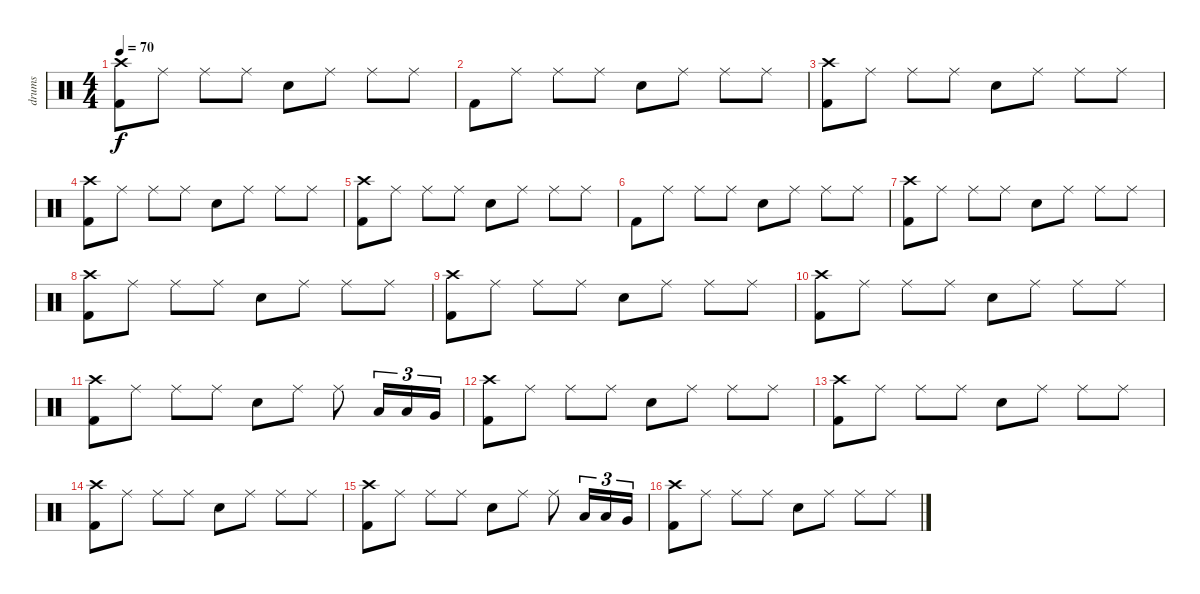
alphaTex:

\track ("drums" "drums") {instrument percussion}
\staff {score}
\articulation defaults
\ts (4 4)
\tempo 70
\clef neutral
\ks c
("Crash high (hit)" "Kick (hit) 2").8{dy f} "Ride (middle)".8 "Ride (middle)".8 "Ride (middle)".8 "Snare (hit) 2".8 "Ride (middle)".8 "Ride (middle)".8 "Ride (middle)".8 |
"Kick (hit) 2".8 "Ride (middle)".8 "Ride (middle)".8 "Ride (middle)".8 "Snare (hit) 2".8 "Ride (middle)".8 "Ride (middle)".8 "Ride (middle)".8 |
("Crash high (hit)" "Kick (hit) 2").8 "Ride (middle)".8 "Ride (middle)".8 "Ride (middle)".8 "Snare (hit) 2".8 "Ride (middle)".8 "Ride (middle)".8 "Ride (middle)".8 |
("Crash high (hit)" "Kick (hit) 2").8 "Ride (middle)".8 "Ride (middle)".8 "Ride (middle)".8 "Snare (hit) 2".8 "Ride (middle)".8 "Ride (middle)".8 "Ride (middle)".8 |
("Crash high (hit)" "Kick (hit) 2").8 "Ride (middle)".8 "Ride (middle)".8 "Ride (middle)".8 "Snare (hit) 2".8 "Ride (middle)".8 "Ride (middle)".8 "Ride (middle)".8 |
"Kick (hit) 2".8 "Ride (middle)".8 "Ride (middle)".8 "Ride (middle)".8 "Snare (hit) 2".8 "Ride (middle)".8 "Ride (middle)".8 "Ride (middle)".8 |
("Crash high (hit)" "Kick (hit) 2").8 "Ride (middle)".8 "Ride (middle)".8 "Ride (middle)".8 "Snare (hit) 2".8 "Ride (middle)".8 "Ride (middle)".8 "Ride (middle)".8 |
("Crash high (hit)" "Kick (hit) 2").8 "Ride (middle)".8 "Ride (middle)".8 "Ride (middle)".8 "Snare (hit) 2".8 "Ride (middle)".8 "Ride (middle)".8 "Ride (middle)".8 |
("Crash high (hit)" "Kick (hit) 2").8 "Ride (middle)".8 "Ride (middle)".8 "Ride (middle)".8 "Snare (hit) 2".8 "Ride (middle)".8 "Ride (middle)".8 "Ride (middle)".8 |
("Crash high (hit)" "Kick (hit) 2").8 "Ride (middle)".8 "Ride (middle)".8 "Ride (middle)".8 "Snare (hit) 2".8 "Ride (middle)".8 "Ride (middle)".8 "Ride (middle)".8 |
("Crash high (hit)" "Kick (hit) 2").8 "Ride (middle)".8 "Ride (middle)".8 "Ride (middle)".8 "Snare (hit) 2".8 "Ride (middle)".8 "Ride (middle)".8 "Low Tom (hit)".16{tu (3 2)} "Low Tom (hit)".16{tu (3 2)} "Very Low Tom (hit)".16{tu (3 2)} |
("Crash high (hit)" "Kick (hit) 2").8 "Ride (middle)".8 "Ride (middle)".8 "Ride (middle)".8 "Snare (hit) 2".8 "Ride (middle)".8 "Ride (middle)".8 "Ride (middle)".8 |
("Crash high (hit)" "Kick (hit) 2").8 "Ride (middle)".8 "Ride (middle)".8 "Ride (middle)".8 "Snare (hit) 2".8 "Ride (middle)".8 "Ride (middle)".8 "Ride (middle)".8 |
("Crash high (hit)" "Kick (hit) 2").8 "Ride (middle)".8 "Ride (middle)".8 "Ride (middle)".8 "Snare (hit) 2".8 "Ride (middle)".8 "Ride (middle)".8 "Ride (middle)".8 |
("Crash high (hit)" "Kick (hit) 2").8 "Ride (middle)".8 "Ride (middle)".8 "Ride (middle)".8 "Snare (hit) 2".8 "Ride (middle)".8 "Ride (middle)".8 "Low Tom (hit)".16{tu (3 2)} "Low Tom (hit)".16{tu (3 2)} "Very Low Tom (hit)".16{tu (3 2)} |
("Crash high (hit)" "Kick (hit) 2").8 "Ride (middle)".8 "Ride (middle)".8 "Ride (middle)".8 "Snare (hit) 2".8 "Ride (middle)".8 "Ride (middle)".8 "Ride (middle)".8
